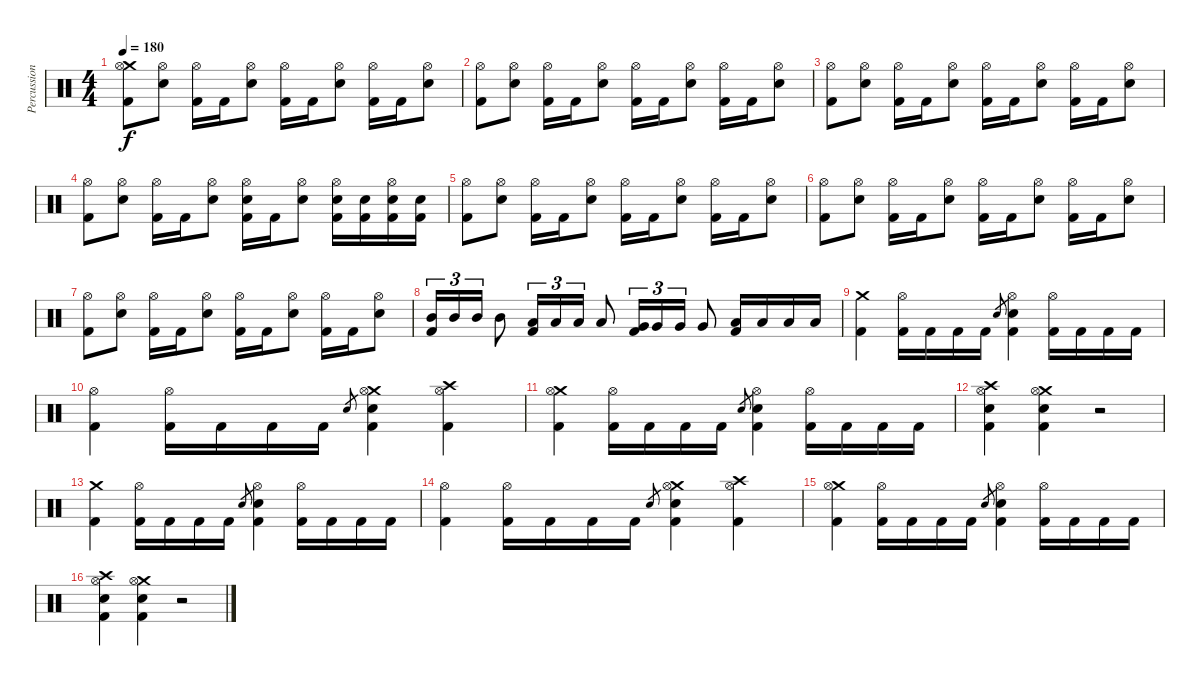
\track ("Percussion" "Percussion") {instrument percussion}
\staff {score}
\articulation defaults
\ts (4 4)
\tempo 180
\clef neutral
\ks c
("Crash medium (hit)" "Hi-Hat (open)" "Kick (hit) 2").8{dy f} ("Hi-Hat (open)" "Electric Snare (hit)").8 ("Hi-Hat (open)" "Kick (hit) 2").16 "Kick (hit) 2".16 ("Hi-Hat (open)" "Electric Snare (hit)").8 ("Hi-Hat (open)" "Kick (hit) 2").16 "Kick (hit) 2".16 ("Hi-Hat (open)" "Electric Snare (hit)").8 ("Hi-Hat (open)" "Kick (hit) 2").16 "Kick (hit) 2".16 ("Hi-Hat (open)" "Electric Snare (hit)").8 |
("Hi-Hat (open)" "Kick (hit) 2").8 ("Hi-Hat (open)" "Electric Snare (hit)").8 ("Hi-Hat (open)" "Kick (hit) 2").16 "Kick (hit) 2".16 ("Hi-Hat (open)" "Electric Snare (hit)").8 ("Hi-Hat (open)" "Kick (hit) 2").16 "Kick (hit) 2".16 ("Hi-Hat (open)" "Electric Snare (hit)").8 ("Hi-Hat (open)" "Kick (hit) 2").16 "Kick (hit) 2".16 ("Hi-Hat (open)" "Electric Snare (hit)").8 |
("Hi-Hat (open)" "Kick (hit) 2").8 ("Hi-Hat (open)" "Electric Snare (hit)").8 ("Hi-Hat (open)" "Kick (hit) 2").16 "Kick (hit) 2".16 ("Hi-Hat (open)" "Electric Snare (hit)").8 ("Hi-Hat (open)" "Kick (hit) 2").16 "Kick (hit) 2".16 ("Hi-Hat (open)" "Electric Snare (hit)").8 ("Hi-Hat (open)" "Kick (hit) 2").16 "Kick (hit) 2".16 ("Hi-Hat (open)" "Electric Snare (hit)").8 |
("Hi-Hat (open)" "Kick (hit) 2").8 ("Hi-Hat (open)" "Electric Snare (hit)").8 ("Hi-Hat (open)" "Kick (hit) 2").16 "Kick (hit) 2".16 ("Hi-Hat (open)" "Electric Snare (hit)").8 ("Hi-Hat (open)" "Electric Snare (hit)" "Kick (hit) 2").16 "Kick (hit) 2".16 ("Hi-Hat (open)" "Electric Snare (hit)").8 ("Hi-Hat (open)" "Electric Snare (hit)" "Kick (hit) 2").16 ("Electric Snare (hit)" "Kick (hit) 2").16 ("Hi-Hat (open)" "Electric Snare (hit)" "Kick (hit) 2").16 ("Electric Snare (hit)" "Kick (hit) 2").16 |
("Hi-Hat (open)" "Kick (hit) 2").8 ("Hi-Hat (open)" "Electric Snare (hit)").8 ("Hi-Hat (open)" "Kick (hit) 2").16 "Kick (hit) 2".16 ("Hi-Hat (open)" "Electric Snare (hit)").8 ("Hi-Hat (open)" "Kick (hit) 2").16 "Kick (hit) 2".16 ("Hi-Hat (open)" "Electric Snare (hit)").8 ("Hi-Hat (open)" "Kick (hit) 2").16 "Kick (hit) 2".16 ("Hi-Hat (open)" "Electric Snare (hit)").8 |
("Hi-Hat (open)" "Kick (hit) 2").8 ("Hi-Hat (open)" "Electric Snare (hit)").8 ("Hi-Hat (open)" "Kick (hit) 2").16 "Kick (hit) 2".16 ("Hi-Hat (open)" "Electric Snare (hit)").8 ("Hi-Hat (open)" "Kick (hit) 2").16 "Kick (hit) 2".16 ("Hi-Hat (open)" "Electric Snare (hit)").8 ("Hi-Hat (open)" "Kick (hit) 2").16 "Kick (hit) 2".16 ("Hi-Hat (open)" "Electric Snare (hit)").8 |
("Hi-Hat (open)" "Kick (hit) 2").8 ("Hi-Hat (open)" "Electric Snare (hit)").8 ("Hi-Hat (open)" "Kick (hit) 2").16 "Kick (hit) 2".16 ("Hi-Hat (open)" "Electric Snare (hit)").8 ("Hi-Hat (open)" "Kick (hit) 2").16 "Kick (hit) 2".16 ("Hi-Hat (open)" "Electric Snare (hit)").8 ("Hi-Hat (open)" "Kick (hit) 2").16 "Kick (hit) 2".16 ("Hi-Hat (open)" "Electric Snare (hit)").8 |
("Mid Tom (hit)" "Kick (hit) 2").16{tu (3 2)} "Mid Tom (hit)".16{tu (3 2)} "Mid Tom (hit)".16{tu (3 2)} "Mid Tom (hit)".8 ("Low Tom (hit)" "Kick (hit) 2").16{tu (3 2)} "Low Tom (hit)".16{tu (3 2)} "Low Tom (hit)".16{tu (3 2)} "Low Tom (hit)".8 ("Very Low Tom (hit)" "Kick (hit) 2").16{tu (3 2)} "Very Low Tom (hit)".16{tu (3 2)} "Very Low Tom (hit)".16{tu (3 2)} "Very Low Tom (hit)".8 ("Low Floor Tom (hit)" "Kick (hit) 2").16 "Low Floor Tom (hit)".16 "Low Floor Tom (hit)".16 "Low Floor Tom (hit)".16 |
("Crash medium (hit)" "Kick (hit) 2").4 ("Hi-Hat (open)" "Kick (hit) 2").16 "Kick (hit) 2".16 "Kick (hit) 2".16 "Kick (hit) 2".16 "Electric Snare (hit)".8{gr} ("Hi-Hat (open)" "Electric Snare (hit)" "Kick (hit) 2").4 ("Hi-Hat (open)" "Kick (hit) 2").16 "Kick (hit) 2".16 "Kick (hit) 2".16 "Kick (hit) 2".16 |
("Hi-Hat (open)" "Kick (hit) 2").4 ("Hi-Hat (open)" "Kick (hit) 2").16 "Kick (hit) 2".16 "Kick (hit) 2".16 "Kick (hit) 2".16 "Electric Snare (hit)".8{gr} ("Crash medium (hit)" "Hi-Hat (open)" "Electric Snare (hit)" "Kick (hit) 2").4 ("Crash high (hit)" "Hi-Hat (open)" "Kick (hit) 2").4 |
("Crash medium (hit)" "Hi-Hat (open)" "Kick (hit) 2").4 ("Hi-Hat (open)" "Kick (hit) 2").16 "Kick (hit) 2".16 "Kick (hit) 2".16 "Kick (hit) 2".16 "Electric Snare (hit)".8{gr} ("Hi-Hat (open)" "Electric Snare (hit)" "Kick (hit) 2").4 ("Hi-Hat (open)" "Kick (hit) 2").16 "Kick (hit) 2".16 "Kick (hit) 2".16 "Kick (hit) 2".16 |
("Crash high (hit)" "Hi-Hat (open)" "Electric Snare (hit)" "Kick (hit) 2").4 ("Crash medium (hit)" "Hi-Hat (open)" "Electric Snare (hit)" "Kick (hit) 2").4 r.2 |
("Crash medium (hit)" "Kick (hit) 2").4 ("Hi-Hat (open)" "Kick (hit) 2").16 "Kick (hit) 2".16 "Kick (hit) 2".16 "Kick (hit) 2".16 "Electric Snare (hit)".8{gr} ("Hi-Hat (open)" "Electric Snare (hit)" "Kick (hit) 2").4 ("Hi-Hat (open)" "Kick (hit) 2").16 "Kick (hit) 2".16 "Kick (hit) 2".16 "Kick (hit) 2".16 |
("Hi-Hat (open)" "Kick (hit) 2").4 ("Hi-Hat (open)" "Kick (hit) 2").16 "Kick (hit) 2".16 "Kick (hit) 2".16 "Kick (hit) 2".16 "Electric Snare (hit)".8{gr} ("Crash medium (hit)" "Hi-Hat (open)" "Electric Snare (hit)" "Kick (hit) 2").4 ("Crash high (hit)" "Hi-Hat (open)" "Kick (hit) 2").4 |
("Crash medium (hit)" "Hi-Hat (open)" "Kick (hit) 2").4 ("Hi-Hat (open)" "Kick (hit) 2").16 "Kick (hit) 2".16 "Kick (hit) 2".16 "Kick (hit) 2".16 "Electric Snare (hit)".8{gr} ("Hi-Hat (open)" "Electric Snare (hit)" "Kick (hit) 2").4 ("Hi-Hat (open)" "Kick (hit) 2").16 "Kick (hit) 2".16 "Kick (hit) 2".16 "Kick (hit) 2".16 |
("Crash high (hit)" "Hi-Hat (open)" "Electric Snare (hit)" "Kick (hit) 2").4 ("Crash medium (hit)" "Hi-Hat (open)" "Electric Snare (hit)" "Kick (hit) 2").4 r.2
